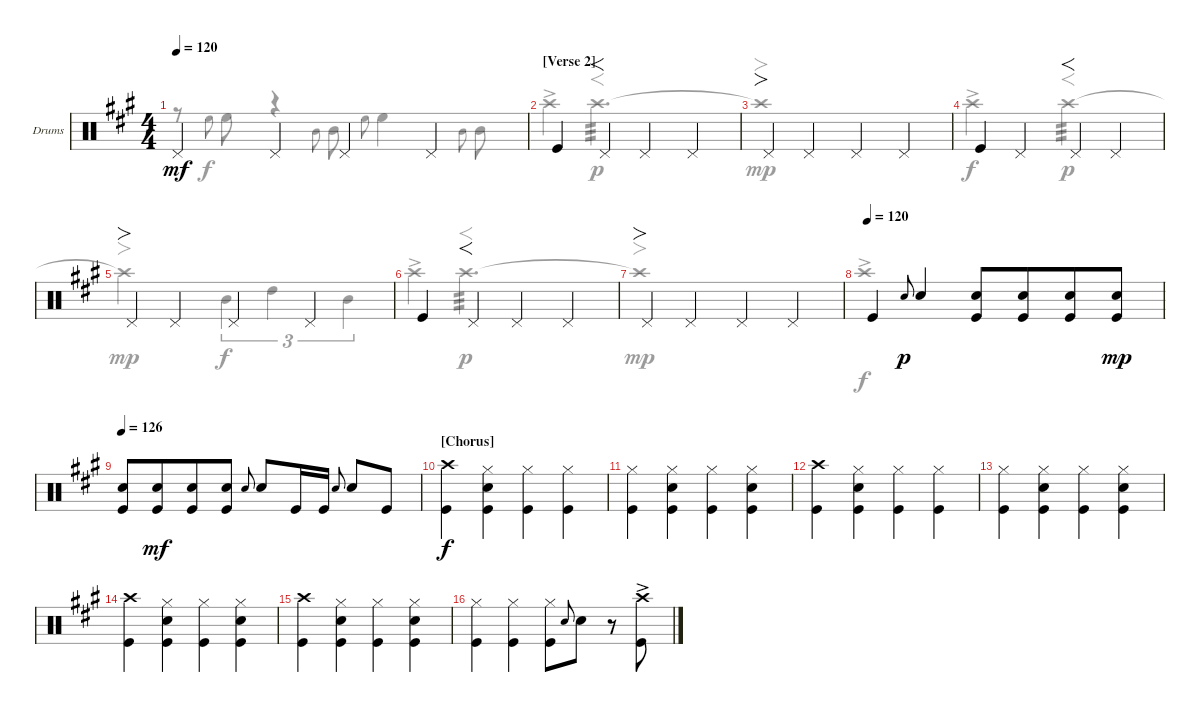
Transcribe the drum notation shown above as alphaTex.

\defaultSystemsLayout 4
\bracketExtendMode groupsimilarinstruments
\firstSystemTrackNameOrientation horizontal
\otherSystemsTrackNameOrientation horizontal
\track ("Drums" "Drums") {instrument percussion}
\staff {score}
\articulation defaults
\voice
\ts (4 4)
\tempo 120
\clef neutral
\ks a "Pedal Hi-Hat (hit)".4{dy mf} "Pedal Hi-Hat (hit)".4 "Pedal Hi-Hat (hit)".4 "Pedal Hi-Hat (hit)".4
|
\section ("" "[Verse 2]")
"Kick (hit)".4 "Pedal Hi-Hat (hit)".4{f} "Pedal Hi-Hat (hit)".4 "Pedal Hi-Hat (hit)".4 |
"Pedal Hi-Hat (hit)".4{fo} "Pedal Hi-Hat (hit)".4 "Pedal Hi-Hat (hit)".4 "Pedal Hi-Hat (hit)".4 |
"Kick (hit)".4 "Pedal Hi-Hat (hit)".4 "Pedal Hi-Hat (hit)".4{f} "Pedal Hi-Hat (hit)".4 |
"Pedal Hi-Hat (hit)".4{fo} "Pedal Hi-Hat (hit)".4 "Pedal Hi-Hat (hit)".4 "Pedal Hi-Hat (hit)".4 |
"Kick (hit)".4 "Pedal Hi-Hat (hit)".4{f} "Pedal Hi-Hat (hit)".4 "Pedal Hi-Hat (hit)".4 |
"Pedal Hi-Hat (hit)".4{fo} "Pedal Hi-Hat (hit)".4 "Pedal Hi-Hat (hit)".4 "Pedal Hi-Hat (hit)".4 |
\tempo (120)
"Kick (hit)".4 "Snare (hit) 2".8{gr onbeat dy p} "Snare (hit) 2".4 ("Kick (hit)" "Snare (hit) 2").8 ("Kick (hit)" "Snare (hit) 2").8{beam merge} ("Kick (hit)" "Snare (hit) 2").8 ("Kick (hit)" "Snare (hit) 2").8{dy mp} |
\tempo 126
("Kick (hit)" "Snare (hit) 2").8 ("Kick (hit)" "Snare (hit) 2").8{dy mf beam merge} ("Kick (hit)" "Snare (hit) 2").8 ("Kick (hit)" "Snare (hit) 2").8 "Snare (hit) 2".8{gr onbeat} "Snare (hit) 2".8 "Kick (hit)".16 "Kick (hit)".16 "Snare (hit) 2".8{gr onbeat} "Snare (hit) 2".8 "Kick (hit)".8 |
\section ("" "[Chorus]")
("Kick (hit)" "Crash high (hit)").4{dy f} ("Kick (hit)" "Hi-Hat (closed)" "Snare (hit) 2").4 ("Kick (hit)" "Hi-Hat (closed)").4 ("Kick (hit)" "Hi-Hat (closed)").4 |
("Kick (hit)" "Hi-Hat (closed)").4 ("Kick (hit)" "Hi-Hat (closed)" "Snare (hit) 2").4 ("Kick (hit)" "Hi-Hat (closed)").4 ("Kick (hit)" "Hi-Hat (closed)" "Snare (hit) 2").4 |
("Kick (hit)" "Crash high (hit)").4 ("Kick (hit)" "Hi-Hat (closed)" "Snare (hit) 2").4 ("Kick (hit)" "Hi-Hat (closed)").4 ("Kick (hit)" "Hi-Hat (closed)").4 |
("Kick (hit)" "Hi-Hat (closed)").4 ("Kick (hit)" "Hi-Hat (closed)" "Snare (hit) 2").4 ("Kick (hit)" "Hi-Hat (closed)").4 ("Kick (hit)" "Hi-Hat (closed)" "Snare (hit) 2").4 |
("Kick (hit)" "Crash high (hit)").4 ("Kick (hit)" "Hi-Hat (closed)" "Snare (hit) 2").4 ("Kick (hit)" "Hi-Hat (closed)").4 ("Kick (hit)" "Hi-Hat (closed)" "Snare (hit) 2").4 |
("Kick (hit)" "Crash high (hit)").4 ("Kick (hit)" "Hi-Hat (closed)" "Snare (hit) 2").4 ("Kick (hit)" "Hi-Hat (closed)").4 ("Kick (hit)" "Hi-Hat (closed)" "Snare (hit) 2").4 |
("Kick (hit)" "Hi-Hat (closed)").4 ("Kick (hit)" "Hi-Hat (closed)").4 ("Kick (hit)" "Hi-Hat (closed)").8 "Snare (hit) 2".8{gr onbeat} "Snare (hit) 2".8 r.8 ("Kick (hit)" "Crash high (hit)"{ac}).8
\voice
\clef neutral
\ottava regular
\simile none
\ks a
r.8{dy p} "High Floor Tom (hit)".8{gr onbeat dy f} "High Floor Tom (hit)".8 r.4 "Mid Tom (hit)".8{gr onbeat} "Mid Tom (hit)".8 "High Floor Tom (hit)".8{gr onbeat} "High Floor Tom (hit)".4 "Mid Tom (hit)".8{gr onbeat} "Mid Tom (hit)".8 |
"Crash high (hit)"{ac}.4 "Crash high (hit)".2{f d tp 3 dy p} |
"Crash high (hit)"{t}.1{fo dy mp} |
"Crash high (hit)"{ac}.2{dy f} "Crash high (hit)".2{f tp 3 dy p} |
"Crash high (hit)"{t}.2{fo dy mp} "Mid Tom (hit)".4{tu (3 2) dy f} "High Tom (hit)".4{tu (3 2)} "Mid Tom (hit)".4{tu (3 2)} |
"Crash high (hit)"{ac}.4 "Crash high (hit)".2{f d tp 3 dy p} |
"Crash high (hit)"{t}.1{fo dy mp} |
"Crash high (hit)"{ac}.1{dy f} |
|
|
|
|
|
|
|
